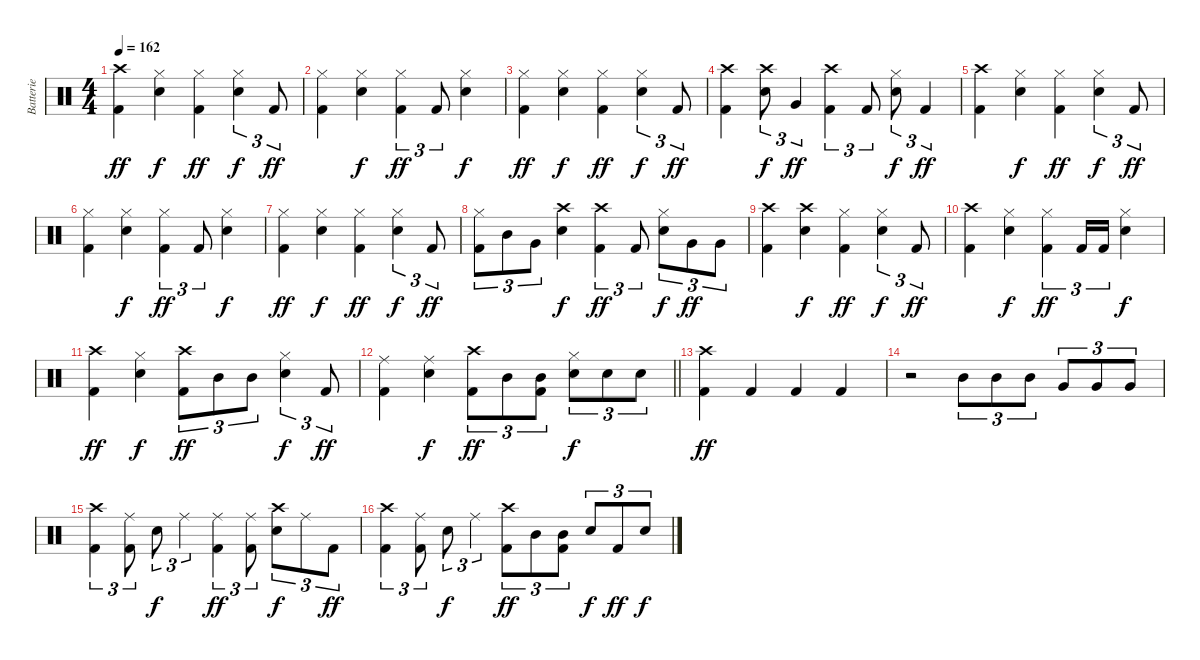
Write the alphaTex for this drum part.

\track ("Batterie" "Batterie") {instrument percussion}
\staff {score}
\articulation defaults
\ts (4 4)
\tempo 162
\clef neutral
\ks c
("Crash high (hit)" "Kick (hit) 2").4{dy ff} ("Hi-Hat (closed)" "Snare (hit) 2").4{dy f} ("Hi-Hat (closed)" "Kick (hit) 2").4{dy ff} ("Hi-Hat (closed)" "Snare (hit) 2").4{tu (3 2) dy f} "Kick (hit) 2".8{tu (3 2) dy ff} |
("Hi-Hat (closed)" "Kick (hit) 2").4 ("Hi-Hat (closed)" "Snare (hit) 2").4{dy f} ("Hi-Hat (closed)" "Kick (hit) 2").4{tu (3 2) dy ff} "Kick (hit) 2".8{tu (3 2)} ("Hi-Hat (closed)" "Snare (hit) 2").4{dy f} |
("Hi-Hat (closed)" "Kick (hit) 2").4{dy ff} ("Hi-Hat (closed)" "Snare (hit) 2").4{dy f} ("Hi-Hat (closed)" "Kick (hit) 2").4{dy ff} ("Hi-Hat (closed)" "Snare (hit) 2").4{tu (3 2) dy f} "Kick (hit) 2".8{tu (3 2) dy ff} |
("Crash high (hit)" "Kick (hit) 2").4 ("Crash high (hit)" "Snare (hit) 2").8{tu (3 2) dy f} "Very Low Tom (hit)".4{tu (3 2) dy ff} ("Crash high (hit)" "Kick (hit) 2").4{tu (3 2)} "Kick (hit) 2".8{tu (3 2)} ("Hi-Hat (closed)" "Snare (hit) 2").8{tu (3 2) dy f} "Kick (hit) 2".4{tu (3 2) dy ff} |
("Crash high (hit)" "Kick (hit) 2").4 ("Hi-Hat (closed)" "Snare (hit) 2").4{dy f} ("Hi-Hat (closed)" "Kick (hit) 2").4{dy ff} ("Hi-Hat (closed)" "Snare (hit) 2").4{tu (3 2) dy f} "Kick (hit) 2".8{tu (3 2) dy ff} |
("Hi-Hat (closed)" "Kick (hit) 2").4 ("Hi-Hat (closed)" "Snare (hit) 2").4{dy f} ("Hi-Hat (closed)" "Kick (hit) 2").4{tu (3 2) dy ff} "Kick (hit) 2".8{tu (3 2)} ("Hi-Hat (closed)" "Snare (hit) 2").4{dy f} |
("Hi-Hat (closed)" "Kick (hit) 2").4{dy ff} ("Hi-Hat (closed)" "Snare (hit) 2").4{dy f} ("Hi-Hat (closed)" "Kick (hit) 2").4{dy ff} ("Hi-Hat (closed)" "Snare (hit) 2").4{tu (3 2) dy f} "Kick (hit) 2".8{tu (3 2) dy ff} |
("Hi-Hat (closed)" "Kick (hit) 2").8{tu (3 2)} "Mid Tom (hit)".8{tu (3 2)} "Very Low Tom (hit)".8{tu (3 2)} ("Crash high (hit)" "Snare (hit) 2").4{dy f} ("Crash high (hit)" "Kick (hit) 2").4{tu (3 2) dy ff} "Kick (hit) 2".8{tu (3 2)} ("Hi-Hat (closed)" "Snare (hit) 2").8{tu (3 2) dy f} "Very Low Tom (hit)".8{tu (3 2) dy ff} "Very Low Tom (hit)".8{tu (3 2)} |
("Crash high (hit)" "Kick (hit) 2").4 ("Crash high (hit)" "Snare (hit) 2").4{dy f} ("Hi-Hat (closed)" "Kick (hit) 2").4{dy ff} ("Hi-Hat (closed)" "Snare (hit) 2").4{tu (3 2) dy f} "Kick (hit) 2".8{tu (3 2) dy ff} |
("Crash high (hit)" "Kick (hit) 2").4 ("Hi-Hat (closed)" "Snare (hit) 2").4{dy f} ("Hi-Hat (closed)" "Kick (hit) 2").4{tu (3 2) dy ff} "Kick (hit) 2".16{tu (3 2)} "Kick (hit) 2".16{tu (3 2)} ("Hi-Hat (closed)" "Snare (hit) 2").4{dy f} |
("Crash high (hit)" "Kick (hit) 2").4{dy ff} ("Hi-Hat (closed)" "Snare (hit) 2").4{dy f} ("Crash high (hit)" "Kick (hit) 2").8{tu (3 2) dy ff} "Mid Tom (hit)".8{tu (3 2)} "Mid Tom (hit)".8{tu (3 2)} ("Hi-Hat (closed)" "Snare (hit) 2").4{tu (3 2) dy f} "Kick (hit) 2".8{tu (3 2) dy ff} |
\barLineRight lightlight
("Ride (middle)" "Kick (hit) 2").4 ("Ride (middle)" "Snare (hit) 2").4{dy f} ("Crash high (hit)" "Kick (hit) 2").8{tu (3 2) dy ff} "Mid Tom (hit)".8{tu (3 2)} ("Mid Tom (hit)" "Kick (hit) 2").8{tu (3 2)} ("Hi-Hat (closed)" "Snare (hit) 2").8{tu (3 2) dy f} "Snare (hit) 2".8{tu (3 2)} "Snare (hit) 2".8{tu (3 2)} |
("Crash high (hit)" "Kick (hit) 2").4{dy ff} "Kick (hit) 2".4 "Kick (hit) 2".4 "Kick (hit) 2".4 |
r.2 "Mid Tom (hit)".8{tu (3 2)} "Mid Tom (hit)".8{tu (3 2)} "Mid Tom (hit)".8{tu (3 2)} "Very Low Tom (hit)".8{tu (3 2)} "Very Low Tom (hit)".8{tu (3 2)} "Very Low Tom (hit)".8{tu (3 2)} |
("Crash high (hit)" "Kick (hit) 2").4{tu (3 2)} ("Ride (middle)" "Kick (hit) 2").8{tu (3 2)} "Snare (hit) 2".8{tu (3 2) dy f} "Ride (middle)".4{tu (3 2)} ("Ride (middle)" "Kick (hit) 2").4{tu (3 2) dy ff} ("Ride (middle)" "Kick (hit) 2").8{tu (3 2)} ("Crash high (hit)" "Snare (hit) 2").8{tu (3 2) dy f} "Ride (middle)".8{tu (3 2)} "Kick (hit) 2".8{tu (3 2) dy ff} |
("Crash high (hit)" "Kick (hit) 2").4{tu (3 2)} ("Ride (middle)" "Kick (hit) 2").8{tu (3 2)} "Snare (hit) 2".8{tu (3 2) dy f} "Ride (middle)".4{tu (3 2)} ("Crash high (hit)" "Kick (hit) 2").8{tu (3 2) dy ff} "Mid Tom (hit)".8{tu (3 2)} ("Mid Tom (hit)" "Kick (hit) 2").8{tu (3 2)} "Snare (hit) 2".8{tu (3 2) dy f} "Kick (hit) 2".8{tu (3 2) dy ff} "Snare (hit) 2".8{tu (3 2) dy f}
